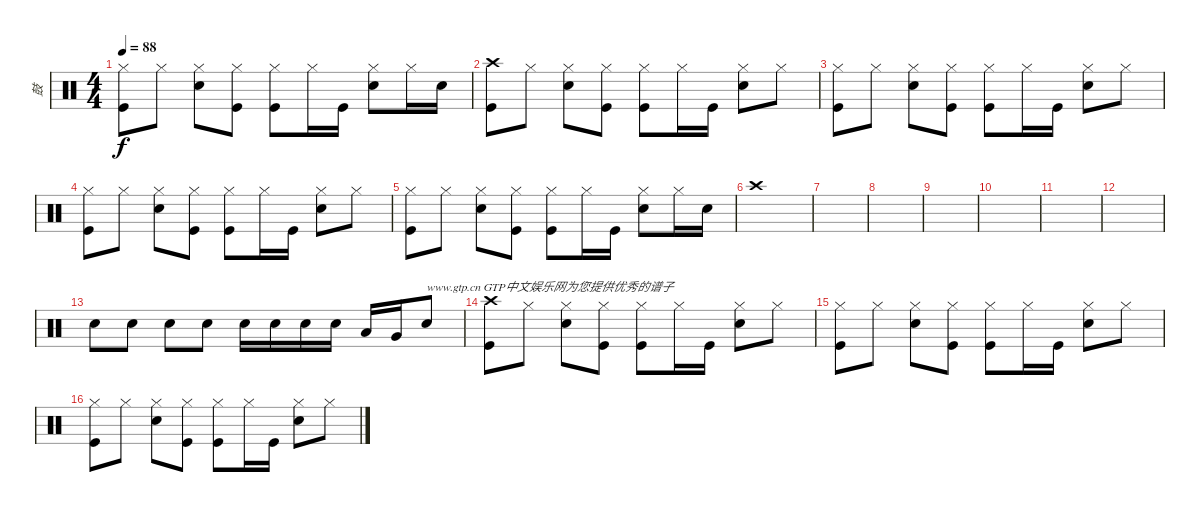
\track ("鼓" "鼓") {instrument percussion}
\staff {score}
\articulation defaults
\ts (4 4)
\tempo 88
\clef neutral
\ks c
("Hi-Hat (closed)" "Kick (hit)").8{dy f} "Hi-Hat (closed)".8 ("Hi-Hat (closed)" "Snare (hit) 2").8 ("Hi-Hat (closed)" "Kick (hit)").8 ("Hi-Hat (closed)" "Kick (hit)").8 "Hi-Hat (closed)".16 "Kick (hit)".16 ("Hi-Hat (closed)" "Snare (hit) 2").8 "Hi-Hat (closed)".16 "Snare (hit) 2".16 |
("Crash high (hit)" "Kick (hit)").8 "Hi-Hat (closed)".8 ("Hi-Hat (closed)" "Snare (hit) 2").8 ("Hi-Hat (closed)" "Kick (hit)").8 ("Hi-Hat (closed)" "Kick (hit)").8 "Hi-Hat (closed)".16 "Kick (hit)".16 ("Hi-Hat (closed)" "Snare (hit) 2").8 "Hi-Hat (closed)".8 |
("Hi-Hat (closed)" "Kick (hit)").8 "Hi-Hat (closed)".8 ("Hi-Hat (closed)" "Snare (hit) 2").8 ("Hi-Hat (closed)" "Kick (hit)").8 ("Hi-Hat (closed)" "Kick (hit)").8 "Hi-Hat (closed)".16 "Kick (hit)".16 ("Hi-Hat (closed)" "Snare (hit) 2").8 "Hi-Hat (closed)".8 |
("Hi-Hat (closed)" "Kick (hit)").8 "Hi-Hat (closed)".8 ("Hi-Hat (closed)" "Snare (hit) 2").8 ("Hi-Hat (closed)" "Kick (hit)").8 ("Hi-Hat (closed)" "Kick (hit)").8 "Hi-Hat (closed)".16 "Kick (hit)".16 ("Hi-Hat (closed)" "Snare (hit) 2").8 "Hi-Hat (closed)".8 |
("Hi-Hat (closed)" "Kick (hit)").8 "Hi-Hat (closed)".8 ("Hi-Hat (closed)" "Snare (hit) 2").8 ("Hi-Hat (closed)" "Kick (hit)").8 ("Hi-Hat (closed)" "Kick (hit)").8 "Hi-Hat (closed)".16 "Kick (hit)".16 ("Hi-Hat (closed)" "Snare (hit) 2").8 "Hi-Hat (closed)".16 "Snare (hit) 2".16 |
"Crash high (hit)".1 |
|
|
|
|
|
|
"Snare (hit) 2".8 "Snare (hit) 2".8 "Snare (hit) 2".8 "Snare (hit) 2".8 "Snare (hit) 2".16 "Snare (hit) 2".16 "Snare (hit) 2".16 "Snare (hit) 2".16 "Low Tom (hit)".16 "Very Low Tom (hit)".16 "Snare (hit) 2".8{txt "www.gtp.cn GTP中文娱乐网为您提供优秀的谱子"} |
("Crash high (hit)" "Kick (hit)").8 "Hi-Hat (closed)".8 ("Hi-Hat (closed)" "Snare (hit) 2").8 ("Hi-Hat (closed)" "Kick (hit)").8 ("Hi-Hat (closed)" "Kick (hit)").8 "Hi-Hat (closed)".16 "Kick (hit)".16 ("Hi-Hat (closed)" "Snare (hit) 2").8 "Hi-Hat (closed)".8 |
("Hi-Hat (closed)" "Kick (hit)").8 "Hi-Hat (closed)".8 ("Hi-Hat (closed)" "Snare (hit) 2").8 ("Hi-Hat (closed)" "Kick (hit)").8 ("Hi-Hat (closed)" "Kick (hit)").8 "Hi-Hat (closed)".16 "Kick (hit)".16 ("Hi-Hat (closed)" "Snare (hit) 2").8 "Hi-Hat (closed)".8 |
("Hi-Hat (closed)" "Kick (hit)").8 "Hi-Hat (closed)".8 ("Hi-Hat (closed)" "Snare (hit) 2").8 ("Hi-Hat (closed)" "Kick (hit)").8 ("Hi-Hat (closed)" "Kick (hit)").8 "Hi-Hat (closed)".16 "Kick (hit)".16 ("Hi-Hat (closed)" "Snare (hit) 2").8 "Hi-Hat (closed)".8
